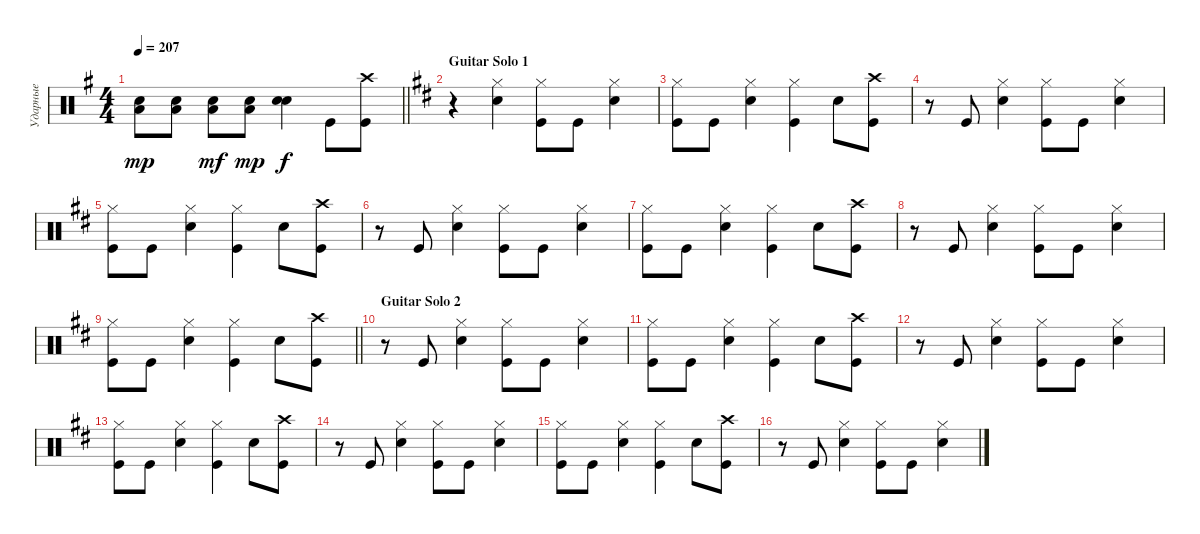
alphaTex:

\track ("Ударные" "Ударные") {instrument percussion}
\staff {score}
\articulation defaults
\ts (4 4)
\tempo 207
\clef neutral
\barLineRight lightlight
\ks eminor
("Low Floor Tom (hit)" "Snare (hit) 2").8{bd 120 dy mp} ("Low Floor Tom (hit)" "Snare (hit) 2").8{bd 120} ("Low Floor Tom (hit)" "Snare (hit) 2").8{bd 120 dy mf} ("Low Floor Tom (hit)" "Snare (hit) 2").8{bd 120 dy mp} ("Snare (hit) 2" "Snare (hit) 2").4{bd 480 dy f} "Kick (hit)".8 ("Kick (hit)" "Crash high (hit)").8 |
\section ("" "Guitar Solo 1")
\ks bminor
r.4 ("Snare (hit) 2" "Hi-Hat (closed)").4 ("Kick (hit)" "Hi-Hat (closed)").8 "Kick (hit)".8 ("Snare (hit) 2" "Hi-Hat (closed)").4 |
("Kick (hit)" "Hi-Hat (closed)").8 "Kick (hit)".8 ("Snare (hit) 2" "Hi-Hat (closed)").4 ("Kick (hit)" "Hi-Hat (closed)").4 "Snare (hit) 2".8 ("Kick (hit)" "Crash high (hit)").8 |
r.8 "Kick (hit)".8 ("Snare (hit) 2" "Hi-Hat (closed)").4 ("Kick (hit)" "Hi-Hat (closed)").8 "Kick (hit)".8 ("Snare (hit) 2" "Hi-Hat (closed)").4 |
("Kick (hit)" "Hi-Hat (closed)").8 "Kick (hit)".8 ("Snare (hit) 2" "Hi-Hat (closed)").4 ("Kick (hit)" "Hi-Hat (closed)").4 "Snare (hit) 2".8 ("Kick (hit)" "Crash high (hit)").8 |
r.8 "Kick (hit)".8 ("Snare (hit) 2" "Hi-Hat (closed)").4 ("Kick (hit)" "Hi-Hat (closed)").8 "Kick (hit)".8 ("Snare (hit) 2" "Hi-Hat (closed)").4 |
("Kick (hit)" "Hi-Hat (closed)").8 "Kick (hit)".8 ("Snare (hit) 2" "Hi-Hat (closed)").4 ("Kick (hit)" "Hi-Hat (closed)").4 "Snare (hit) 2".8 ("Kick (hit)" "Crash high (hit)").8 |
r.8 "Kick (hit)".8 ("Snare (hit) 2" "Hi-Hat (closed)").4 ("Kick (hit)" "Hi-Hat (closed)").8 "Kick (hit)".8 ("Snare (hit) 2" "Hi-Hat (closed)").4 |
\barLineRight lightlight
("Kick (hit)" "Hi-Hat (closed)").8 "Kick (hit)".8 ("Snare (hit) 2" "Hi-Hat (closed)").4 ("Kick (hit)" "Hi-Hat (closed)").4 "Snare (hit) 2".8 ("Kick (hit)" "Crash high (hit)").8 |
\section ("" "Guitar Solo 2")
r.8 "Kick (hit)".8 ("Snare (hit) 2" "Hi-Hat (closed)").4 ("Kick (hit)" "Hi-Hat (closed)").8 "Kick (hit)".8 ("Snare (hit) 2" "Hi-Hat (closed)").4 |
("Kick (hit)" "Hi-Hat (closed)").8 "Kick (hit)".8 ("Snare (hit) 2" "Hi-Hat (closed)").4 ("Kick (hit)" "Hi-Hat (closed)").4 "Snare (hit) 2".8 ("Kick (hit)" "Crash high (hit)").8 |
r.8 "Kick (hit)".8 ("Snare (hit) 2" "Hi-Hat (closed)").4 ("Kick (hit)" "Hi-Hat (closed)").8 "Kick (hit)".8 ("Snare (hit) 2" "Hi-Hat (closed)").4 |
("Kick (hit)" "Hi-Hat (closed)").8 "Kick (hit)".8 ("Snare (hit) 2" "Hi-Hat (closed)").4 ("Kick (hit)" "Hi-Hat (closed)").4 "Snare (hit) 2".8 ("Kick (hit)" "Crash high (hit)").8 |
r.8 "Kick (hit)".8 ("Snare (hit) 2" "Hi-Hat (closed)").4 ("Kick (hit)" "Hi-Hat (closed)").8 "Kick (hit)".8 ("Snare (hit) 2" "Hi-Hat (closed)").4 |
("Kick (hit)" "Hi-Hat (closed)").8 "Kick (hit)".8 ("Snare (hit) 2" "Hi-Hat (closed)").4 ("Kick (hit)" "Hi-Hat (closed)").4 "Snare (hit) 2".8 ("Kick (hit)" "Crash high (hit)").8 |
r.8 "Kick (hit)".8 ("Snare (hit) 2" "Hi-Hat (closed)").4 ("Kick (hit)" "Hi-Hat (closed)").8 "Kick (hit)".8 ("Snare (hit) 2" "Hi-Hat (closed)").4
